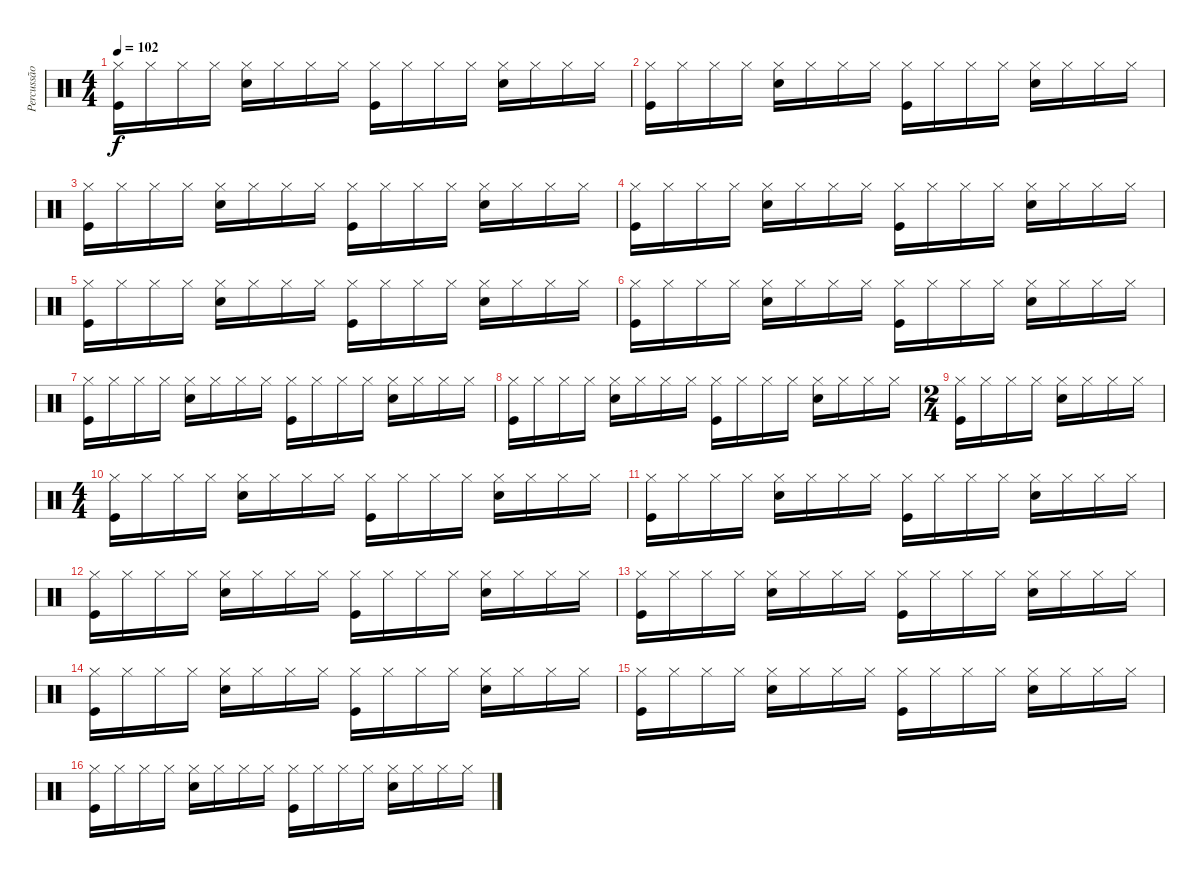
\track ("Percussão" "Percussão") {instrument percussion}
\staff {score}
\articulation defaults
\ts (4 4)
\tempo 102
\clef neutral
\ks c
("Hi-Hat (closed)" "Kick (hit)").16{dy f} "Hi-Hat (closed)".16 "Hi-Hat (closed)".16 "Hi-Hat (closed)".16 ("Hi-Hat (closed)" "Snare (hit) 2").16 "Hi-Hat (closed)".16 "Hi-Hat (closed)".16 "Hi-Hat (closed)".16 ("Hi-Hat (closed)" "Kick (hit)").16 "Hi-Hat (closed)".16 "Hi-Hat (closed)".16 "Hi-Hat (closed)".16 ("Hi-Hat (closed)" "Snare (hit) 2").16 "Hi-Hat (closed)".16 "Hi-Hat (closed)".16 "Hi-Hat (closed)".16 |
("Hi-Hat (closed)" "Kick (hit)").16 "Hi-Hat (closed)".16 "Hi-Hat (closed)".16 "Hi-Hat (closed)".16 ("Hi-Hat (closed)" "Snare (hit) 2").16 "Hi-Hat (closed)".16 "Hi-Hat (closed)".16 "Hi-Hat (closed)".16 ("Hi-Hat (closed)" "Kick (hit)").16 "Hi-Hat (closed)".16 "Hi-Hat (closed)".16 "Hi-Hat (closed)".16 ("Hi-Hat (closed)" "Snare (hit) 2").16 "Hi-Hat (closed)".16 "Hi-Hat (closed)".16 "Hi-Hat (closed)".16 |
("Hi-Hat (closed)" "Kick (hit)").16 "Hi-Hat (closed)".16 "Hi-Hat (closed)".16 "Hi-Hat (closed)".16 ("Hi-Hat (closed)" "Snare (hit) 2").16 "Hi-Hat (closed)".16 "Hi-Hat (closed)".16 "Hi-Hat (closed)".16 ("Hi-Hat (closed)" "Kick (hit)").16 "Hi-Hat (closed)".16 "Hi-Hat (closed)".16 "Hi-Hat (closed)".16 ("Hi-Hat (closed)" "Snare (hit) 2").16 "Hi-Hat (closed)".16 "Hi-Hat (closed)".16 "Hi-Hat (closed)".16 |
("Hi-Hat (closed)" "Kick (hit)").16 "Hi-Hat (closed)".16 "Hi-Hat (closed)".16 "Hi-Hat (closed)".16 ("Hi-Hat (closed)" "Snare (hit) 2").16 "Hi-Hat (closed)".16 "Hi-Hat (closed)".16 "Hi-Hat (closed)".16 ("Hi-Hat (closed)" "Kick (hit)").16 "Hi-Hat (closed)".16 "Hi-Hat (closed)".16 "Hi-Hat (closed)".16 ("Hi-Hat (closed)" "Snare (hit) 2").16 "Hi-Hat (closed)".16 "Hi-Hat (closed)".16 "Hi-Hat (closed)".16 |
("Hi-Hat (closed)" "Kick (hit)").16 "Hi-Hat (closed)".16 "Hi-Hat (closed)".16 "Hi-Hat (closed)".16 ("Hi-Hat (closed)" "Snare (hit) 2").16 "Hi-Hat (closed)".16 "Hi-Hat (closed)".16 "Hi-Hat (closed)".16 ("Hi-Hat (closed)" "Kick (hit)").16 "Hi-Hat (closed)".16 "Hi-Hat (closed)".16 "Hi-Hat (closed)".16 ("Hi-Hat (closed)" "Snare (hit) 2").16 "Hi-Hat (closed)".16 "Hi-Hat (closed)".16 "Hi-Hat (closed)".16 |
("Hi-Hat (closed)" "Kick (hit)").16 "Hi-Hat (closed)".16 "Hi-Hat (closed)".16 "Hi-Hat (closed)".16 ("Hi-Hat (closed)" "Snare (hit) 2").16 "Hi-Hat (closed)".16 "Hi-Hat (closed)".16 "Hi-Hat (closed)".16 ("Hi-Hat (closed)" "Kick (hit)").16 "Hi-Hat (closed)".16 "Hi-Hat (closed)".16 "Hi-Hat (closed)".16 ("Hi-Hat (closed)" "Snare (hit) 2").16 "Hi-Hat (closed)".16 "Hi-Hat (closed)".16 "Hi-Hat (closed)".16 |
("Hi-Hat (closed)" "Kick (hit)").16 "Hi-Hat (closed)".16 "Hi-Hat (closed)".16 "Hi-Hat (closed)".16 ("Hi-Hat (closed)" "Snare (hit) 2").16 "Hi-Hat (closed)".16 "Hi-Hat (closed)".16 "Hi-Hat (closed)".16 ("Hi-Hat (closed)" "Kick (hit)").16 "Hi-Hat (closed)".16 "Hi-Hat (closed)".16 "Hi-Hat (closed)".16 ("Hi-Hat (closed)" "Snare (hit) 2").16 "Hi-Hat (closed)".16 "Hi-Hat (closed)".16 "Hi-Hat (closed)".16 |
("Hi-Hat (closed)" "Kick (hit)").16 "Hi-Hat (closed)".16 "Hi-Hat (closed)".16 "Hi-Hat (closed)".16 ("Hi-Hat (closed)" "Snare (hit) 2").16 "Hi-Hat (closed)".16 "Hi-Hat (closed)".16 "Hi-Hat (closed)".16 ("Hi-Hat (closed)" "Kick (hit)").16 "Hi-Hat (closed)".16 "Hi-Hat (closed)".16 "Hi-Hat (closed)".16 ("Hi-Hat (closed)" "Snare (hit) 2").16 "Hi-Hat (closed)".16 "Hi-Hat (closed)".16 "Hi-Hat (closed)".16 |
\ts (2 4)
("Hi-Hat (closed)" "Kick (hit)").16 "Hi-Hat (closed)".16 "Hi-Hat (closed)".16 "Hi-Hat (closed)".16 ("Hi-Hat (closed)" "Snare (hit) 2").16 "Hi-Hat (closed)".16 "Hi-Hat (closed)".16 "Hi-Hat (closed)".16 |
\ts (4 4)
("Hi-Hat (closed)" "Kick (hit)").16 "Hi-Hat (closed)".16 "Hi-Hat (closed)".16 "Hi-Hat (closed)".16 ("Hi-Hat (closed)" "Snare (hit) 2").16 "Hi-Hat (closed)".16 "Hi-Hat (closed)".16 "Hi-Hat (closed)".16 ("Hi-Hat (closed)" "Kick (hit)").16 "Hi-Hat (closed)".16 "Hi-Hat (closed)".16 "Hi-Hat (closed)".16 ("Hi-Hat (closed)" "Snare (hit) 2").16 "Hi-Hat (closed)".16 "Hi-Hat (closed)".16 "Hi-Hat (closed)".16 |
("Hi-Hat (closed)" "Kick (hit)").16 "Hi-Hat (closed)".16 "Hi-Hat (closed)".16 "Hi-Hat (closed)".16 ("Hi-Hat (closed)" "Snare (hit) 2").16 "Hi-Hat (closed)".16 "Hi-Hat (closed)".16 "Hi-Hat (closed)".16 ("Hi-Hat (closed)" "Kick (hit)").16 "Hi-Hat (closed)".16 "Hi-Hat (closed)".16 "Hi-Hat (closed)".16 ("Hi-Hat (closed)" "Snare (hit) 2").16 "Hi-Hat (closed)".16 "Hi-Hat (closed)".16 "Hi-Hat (closed)".16 |
("Hi-Hat (closed)" "Kick (hit)").16 "Hi-Hat (closed)".16 "Hi-Hat (closed)".16 "Hi-Hat (closed)".16 ("Hi-Hat (closed)" "Snare (hit) 2").16 "Hi-Hat (closed)".16 "Hi-Hat (closed)".16 "Hi-Hat (closed)".16 ("Hi-Hat (closed)" "Kick (hit)").16 "Hi-Hat (closed)".16 "Hi-Hat (closed)".16 "Hi-Hat (closed)".16 ("Hi-Hat (closed)" "Snare (hit) 2").16 "Hi-Hat (closed)".16 "Hi-Hat (closed)".16 "Hi-Hat (closed)".16 |
("Hi-Hat (closed)" "Kick (hit)").16 "Hi-Hat (closed)".16 "Hi-Hat (closed)".16 "Hi-Hat (closed)".16 ("Hi-Hat (closed)" "Snare (hit) 2").16 "Hi-Hat (closed)".16 "Hi-Hat (closed)".16 "Hi-Hat (closed)".16 ("Hi-Hat (closed)" "Kick (hit)").16 "Hi-Hat (closed)".16 "Hi-Hat (closed)".16 "Hi-Hat (closed)".16 ("Hi-Hat (closed)" "Snare (hit) 2").16 "Hi-Hat (closed)".16 "Hi-Hat (closed)".16 "Hi-Hat (closed)".16 |
("Hi-Hat (closed)" "Kick (hit)").16 "Hi-Hat (closed)".16 "Hi-Hat (closed)".16 "Hi-Hat (closed)".16 ("Hi-Hat (closed)" "Snare (hit) 2").16 "Hi-Hat (closed)".16 "Hi-Hat (closed)".16 "Hi-Hat (closed)".16 ("Hi-Hat (closed)" "Kick (hit)").16 "Hi-Hat (closed)".16 "Hi-Hat (closed)".16 "Hi-Hat (closed)".16 ("Hi-Hat (closed)" "Snare (hit) 2").16 "Hi-Hat (closed)".16 "Hi-Hat (closed)".16 "Hi-Hat (closed)".16 |
("Hi-Hat (closed)" "Kick (hit)").16 "Hi-Hat (closed)".16 "Hi-Hat (closed)".16 "Hi-Hat (closed)".16 ("Hi-Hat (closed)" "Snare (hit) 2").16 "Hi-Hat (closed)".16 "Hi-Hat (closed)".16 "Hi-Hat (closed)".16 ("Hi-Hat (closed)" "Kick (hit)").16 "Hi-Hat (closed)".16 "Hi-Hat (closed)".16 "Hi-Hat (closed)".16 ("Hi-Hat (closed)" "Snare (hit) 2").16 "Hi-Hat (closed)".16 "Hi-Hat (closed)".16 "Hi-Hat (closed)".16 |
("Hi-Hat (closed)" "Kick (hit)").16 "Hi-Hat (closed)".16 "Hi-Hat (closed)".16 "Hi-Hat (closed)".16 ("Hi-Hat (closed)" "Snare (hit) 2").16 "Hi-Hat (closed)".16 "Hi-Hat (closed)".16 "Hi-Hat (closed)".16 ("Hi-Hat (closed)" "Kick (hit)").16 "Hi-Hat (closed)".16 "Hi-Hat (closed)".16 "Hi-Hat (closed)".16 ("Hi-Hat (closed)" "Snare (hit) 2").16 "Hi-Hat (closed)".16 "Hi-Hat (closed)".16 "Hi-Hat (closed)".16
